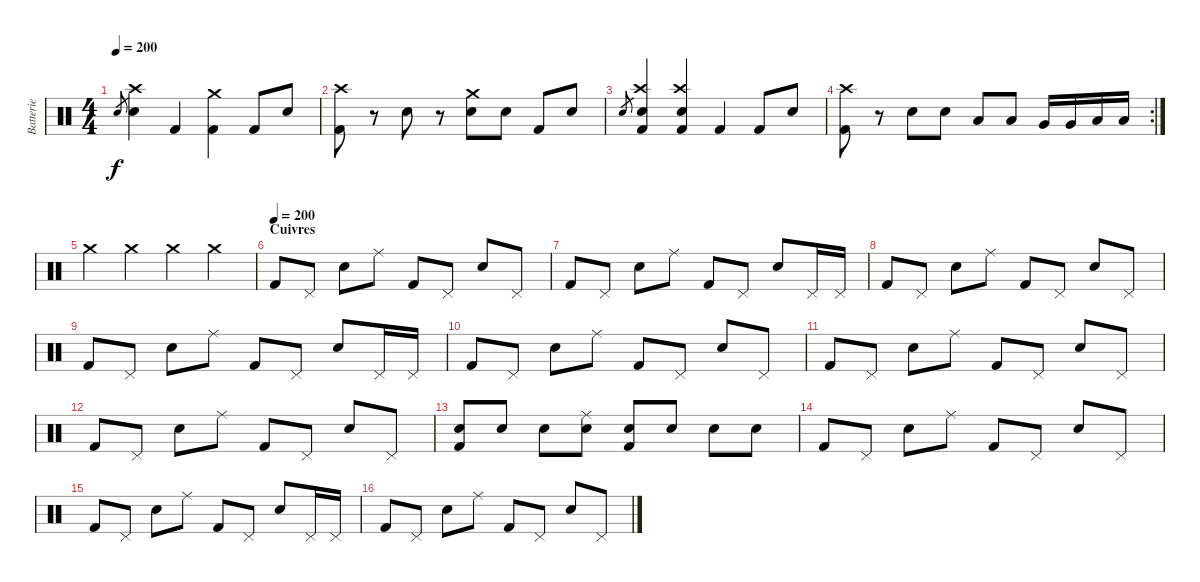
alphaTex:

\track ("Batterie" "Batterie") {instrument percussion}
\staff {score}
\articulation defaults
\ts (4 4)
\tempo 200
\clef neutral
\ks c "Snare (hit) 2".8{gr dy f}
("Crash high (hit)" "Snare (hit) 2").4 "Kick (hit) 2".4 ("Crash medium (hit)" "Kick (hit) 2").4 "Kick (hit) 2".8 "Snare (hit) 2".8 |
("Crash high (hit)" "Kick (hit) 2").8 r.8 "Snare (hit) 2".8 r.8 ("Crash medium (hit)" "Snare (hit) 2").8 "Snare (hit) 2".8 "Kick (hit) 2".8 "Snare (hit) 2".8 |
"Snare (hit) 2".8{gr} ("Crash high (hit)" "Snare (hit) 2" "Kick (hit) 2").4 ("Crash high (hit)" "Snare (hit) 2" "Kick (hit) 2").4 "Kick (hit) 2".4 "Kick (hit) 2".8 "Snare (hit) 2".8 |
\rc 2
("Crash high (hit)" "Kick (hit) 2").8 r.8 "Snare (hit) 2".8 "Snare (hit) 2".8 "Low Tom (hit)".8 "Low Tom (hit)".8 "Very Low Tom (hit)".16 "Very Low Tom (hit)".16 "Low Floor Tom (hit)".16 "Low Floor Tom (hit)".16 |
"Crash medium (hit)".4 "Crash medium (hit)".4 "Crash medium (hit)".4 "Crash medium (hit)".4 |
\section ("" "Cuivres")
\tempo (200)
"Kick (hit) 2".8 "Pedal Hi-Hat (hit)".8 "Snare (hit) 2".8 "Ride (middle)".8 "Kick (hit) 2".8 "Pedal Hi-Hat (hit)".8 "Snare (hit) 2".8 "Pedal Hi-Hat (hit)".8 |
"Kick (hit) 2".8 "Pedal Hi-Hat (hit)".8 "Snare (hit) 2".8 "Ride (middle)".8 "Kick (hit) 2".8 "Pedal Hi-Hat (hit)".8 "Snare (hit) 2".8 "Pedal Hi-Hat (hit)".16 "Pedal Hi-Hat (hit)".16 |
"Kick (hit) 2".8 "Pedal Hi-Hat (hit)".8 "Snare (hit) 2".8 "Ride (middle)".8 "Kick (hit) 2".8 "Pedal Hi-Hat (hit)".8 "Snare (hit) 2".8 "Pedal Hi-Hat (hit)".8 |
"Kick (hit) 2".8 "Pedal Hi-Hat (hit)".8 "Snare (hit) 2".8 "Ride (middle)".8 "Kick (hit) 2".8 "Pedal Hi-Hat (hit)".8 "Snare (hit) 2".8 "Pedal Hi-Hat (hit)".16 "Pedal Hi-Hat (hit)".16 |
"Kick (hit) 2".8 "Pedal Hi-Hat (hit)".8 "Snare (hit) 2".8 "Ride (middle)".8 "Kick (hit) 2".8 "Pedal Hi-Hat (hit)".8 "Snare (hit) 2".8 "Pedal Hi-Hat (hit)".8 |
"Kick (hit) 2".8 "Pedal Hi-Hat (hit)".8 "Snare (hit) 2".8 "Ride (middle)".8 "Kick (hit) 2".8 "Pedal Hi-Hat (hit)".8 "Snare (hit) 2".8 "Pedal Hi-Hat (hit)".8 |
"Kick (hit) 2".8 "Pedal Hi-Hat (hit)".8 "Snare (hit) 2".8 "Ride (middle)".8 "Kick (hit) 2".8 "Pedal Hi-Hat (hit)".8 "Snare (hit) 2".8 "Pedal Hi-Hat (hit)".8 |
("Snare (hit) 2" "Kick (hit) 2").8 "Snare (hit) 2".8 "Snare (hit) 2".8 ("Ride (middle)" "Snare (hit) 2").8 ("Snare (hit) 2" "Kick (hit) 2").8 "Snare (hit) 2".8 "Snare (hit) 2".8 "Snare (hit) 2".8 |
"Kick (hit) 2".8 "Pedal Hi-Hat (hit)".8 "Snare (hit) 2".8 "Ride (middle)".8 "Kick (hit) 2".8 "Pedal Hi-Hat (hit)".8 "Snare (hit) 2".8 "Pedal Hi-Hat (hit)".8 |
"Kick (hit) 2".8 "Pedal Hi-Hat (hit)".8 "Snare (hit) 2".8 "Ride (middle)".8 "Kick (hit) 2".8 "Pedal Hi-Hat (hit)".8 "Snare (hit) 2".8 "Pedal Hi-Hat (hit)".16 "Pedal Hi-Hat (hit)".16 |
"Kick (hit) 2".8 "Pedal Hi-Hat (hit)".8 "Snare (hit) 2".8 "Ride (middle)".8 "Kick (hit) 2".8 "Pedal Hi-Hat (hit)".8 "Snare (hit) 2".8 "Pedal Hi-Hat (hit)".8
